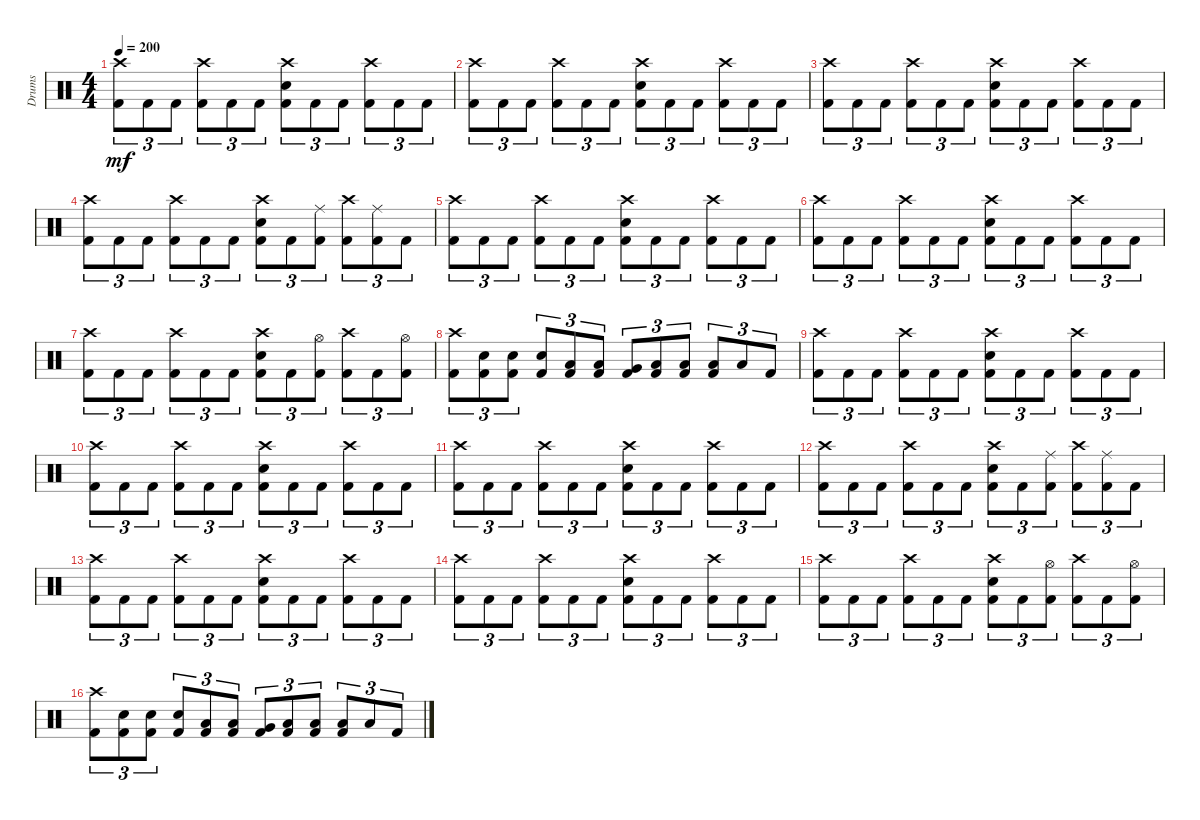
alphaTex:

\track ("Drums" "Drums") {instrument percussion}
\staff {score}
\articulation defaults
\ts (4 4)
\tempo 200
\clef neutral
\ks c
("Crash high (hit)" "Kick (hit) 2").8{tu (3 2) dy mf} "Kick (hit) 2".8{tu (3 2)} "Kick (hit) 2".8{tu (3 2)} ("Crash high (hit)" "Kick (hit) 2").8{tu (3 2)} "Kick (hit) 2".8{tu (3 2)} "Kick (hit) 2".8{tu (3 2)} ("Crash high (hit)" "Electric Snare (hit)" "Kick (hit) 2").8{tu (3 2)} "Kick (hit) 2".8{tu (3 2)} "Kick (hit) 2".8{tu (3 2)} ("Crash high (hit)" "Kick (hit) 2").8{tu (3 2)} "Kick (hit) 2".8{tu (3 2)} "Kick (hit) 2".8{tu (3 2)} |
("Crash high (hit)" "Kick (hit) 2").8{tu (3 2)} "Kick (hit) 2".8{tu (3 2)} "Kick (hit) 2".8{tu (3 2)} ("Crash high (hit)" "Kick (hit) 2").8{tu (3 2)} "Kick (hit) 2".8{tu (3 2)} "Kick (hit) 2".8{tu (3 2)} ("Crash high (hit)" "Electric Snare (hit)" "Kick (hit) 2").8{tu (3 2)} "Kick (hit) 2".8{tu (3 2)} "Kick (hit) 2".8{tu (3 2)} ("Crash high (hit)" "Kick (hit) 2").8{tu (3 2)} "Kick (hit) 2".8{tu (3 2)} "Kick (hit) 2".8{tu (3 2)} |
("Crash high (hit)" "Kick (hit) 2").8{tu (3 2)} "Kick (hit) 2".8{tu (3 2)} "Kick (hit) 2".8{tu (3 2)} ("Crash high (hit)" "Kick (hit) 2").8{tu (3 2)} "Kick (hit) 2".8{tu (3 2)} "Kick (hit) 2".8{tu (3 2)} ("Crash high (hit)" "Electric Snare (hit)" "Kick (hit) 2").8{tu (3 2)} "Kick (hit) 2".8{tu (3 2)} "Kick (hit) 2".8{tu (3 2)} ("Crash high (hit)" "Kick (hit) 2").8{tu (3 2)} "Kick (hit) 2".8{tu (3 2)} "Kick (hit) 2".8{tu (3 2)} |
("Crash high (hit)" "Kick (hit) 2").8{tu (3 2)} "Kick (hit) 2".8{tu (3 2)} "Kick (hit) 2".8{tu (3 2)} ("Crash high (hit)" "Kick (hit) 2").8{tu (3 2)} "Kick (hit) 2".8{tu (3 2)} "Kick (hit) 2".8{tu (3 2)} ("Crash high (hit)" "Electric Snare (hit)" "Kick (hit) 2").8{tu (3 2)} "Kick (hit) 2".8{tu (3 2)} ("Ride (middle)" "Kick (hit) 2").8{tu (3 2)} ("Crash high (hit)" "Kick (hit) 2").8{tu (3 2)} ("Ride (middle)" "Kick (hit) 2").8{tu (3 2)} "Kick (hit) 2".8{tu (3 2)} |
("Crash high (hit)" "Kick (hit) 2").8{tu (3 2)} "Kick (hit) 2".8{tu (3 2)} "Kick (hit) 2".8{tu (3 2)} ("Crash high (hit)" "Kick (hit) 2").8{tu (3 2)} "Kick (hit) 2".8{tu (3 2)} "Kick (hit) 2".8{tu (3 2)} ("Crash high (hit)" "Electric Snare (hit)" "Kick (hit) 2").8{tu (3 2)} "Kick (hit) 2".8{tu (3 2)} "Kick (hit) 2".8{tu (3 2)} ("Crash high (hit)" "Kick (hit) 2").8{tu (3 2)} "Kick (hit) 2".8{tu (3 2)} "Kick (hit) 2".8{tu (3 2)} |
("Crash high (hit)" "Kick (hit) 2").8{tu (3 2)} "Kick (hit) 2".8{tu (3 2)} "Kick (hit) 2".8{tu (3 2)} ("Crash high (hit)" "Kick (hit) 2").8{tu (3 2)} "Kick (hit) 2".8{tu (3 2)} "Kick (hit) 2".8{tu (3 2)} ("Crash high (hit)" "Electric Snare (hit)" "Kick (hit) 2").8{tu (3 2)} "Kick (hit) 2".8{tu (3 2)} "Kick (hit) 2".8{tu (3 2)} ("Crash high (hit)" "Kick (hit) 2").8{tu (3 2)} "Kick (hit) 2".8{tu (3 2)} "Kick (hit) 2".8{tu (3 2)} |
("Crash high (hit)" "Kick (hit) 2").8{tu (3 2)} "Kick (hit) 2".8{tu (3 2)} "Kick (hit) 2".8{tu (3 2)} ("Crash high (hit)" "Kick (hit) 2").8{tu (3 2)} "Kick (hit) 2".8{tu (3 2)} "Kick (hit) 2".8{tu (3 2)} ("Crash high (hit)" "Electric Snare (hit)" "Kick (hit) 2").8{tu (3 2)} "Kick (hit) 2".8{tu (3 2)} ("Hi-Hat (open)" "Kick (hit) 2").8{tu (3 2)} ("Crash high (hit)" "Kick (hit) 2").8{tu (3 2)} "Kick (hit) 2".8{tu (3 2)} ("Hi-Hat (open)" "Kick (hit) 2").8{tu (3 2)} |
("Crash high (hit)" "Kick (hit) 2").8{tu (3 2)} ("Electric Snare (hit)" "Kick (hit) 2").8{tu (3 2)} ("Electric Snare (hit)" "Kick (hit) 2").8{tu (3 2)} ("Electric Snare (hit)" "Kick (hit) 2").8{tu (3 2)} ("Low Tom (hit)" "Kick (hit) 2").8{tu (3 2)} ("Low Tom (hit)" "Kick (hit) 2").8{tu (3 2)} ("Very Low Tom (hit)" "Kick (hit) 2").8{tu (3 2)} ("Low Floor Tom (hit)" "Kick (hit) 2").8{tu (3 2)} ("Low Floor Tom (hit)" "Kick (hit) 2").8{tu (3 2)} ("Low Floor Tom (hit)" "Kick (hit) 2").8{tu (3 2)} "Low Floor Tom (hit)".8{tu (3 2)} "Kick (hit) 2".8{tu (3 2)} |
("Crash high (hit)" "Kick (hit) 2").8{tu (3 2)} "Kick (hit) 2".8{tu (3 2)} "Kick (hit) 2".8{tu (3 2)} ("Crash high (hit)" "Kick (hit) 2").8{tu (3 2)} "Kick (hit) 2".8{tu (3 2)} "Kick (hit) 2".8{tu (3 2)} ("Crash high (hit)" "Electric Snare (hit)" "Kick (hit) 2").8{tu (3 2)} "Kick (hit) 2".8{tu (3 2)} "Kick (hit) 2".8{tu (3 2)} ("Crash high (hit)" "Kick (hit) 2").8{tu (3 2)} "Kick (hit) 2".8{tu (3 2)} "Kick (hit) 2".8{tu (3 2)} |
("Crash high (hit)" "Kick (hit) 2").8{tu (3 2)} "Kick (hit) 2".8{tu (3 2)} "Kick (hit) 2".8{tu (3 2)} ("Crash high (hit)" "Kick (hit) 2").8{tu (3 2)} "Kick (hit) 2".8{tu (3 2)} "Kick (hit) 2".8{tu (3 2)} ("Crash high (hit)" "Electric Snare (hit)" "Kick (hit) 2").8{tu (3 2)} "Kick (hit) 2".8{tu (3 2)} "Kick (hit) 2".8{tu (3 2)} ("Crash high (hit)" "Kick (hit) 2").8{tu (3 2)} "Kick (hit) 2".8{tu (3 2)} "Kick (hit) 2".8{tu (3 2)} |
("Crash high (hit)" "Kick (hit) 2").8{tu (3 2)} "Kick (hit) 2".8{tu (3 2)} "Kick (hit) 2".8{tu (3 2)} ("Crash high (hit)" "Kick (hit) 2").8{tu (3 2)} "Kick (hit) 2".8{tu (3 2)} "Kick (hit) 2".8{tu (3 2)} ("Crash high (hit)" "Electric Snare (hit)" "Kick (hit) 2").8{tu (3 2)} "Kick (hit) 2".8{tu (3 2)} "Kick (hit) 2".8{tu (3 2)} ("Crash high (hit)" "Kick (hit) 2").8{tu (3 2)} "Kick (hit) 2".8{tu (3 2)} "Kick (hit) 2".8{tu (3 2)} |
("Crash high (hit)" "Kick (hit) 2").8{tu (3 2)} "Kick (hit) 2".8{tu (3 2)} "Kick (hit) 2".8{tu (3 2)} ("Crash high (hit)" "Kick (hit) 2").8{tu (3 2)} "Kick (hit) 2".8{tu (3 2)} "Kick (hit) 2".8{tu (3 2)} ("Crash high (hit)" "Electric Snare (hit)" "Kick (hit) 2").8{tu (3 2)} "Kick (hit) 2".8{tu (3 2)} ("Ride (middle)" "Kick (hit) 2").8{tu (3 2)} ("Crash high (hit)" "Kick (hit) 2").8{tu (3 2)} ("Ride (middle)" "Kick (hit) 2").8{tu (3 2)} "Kick (hit) 2".8{tu (3 2)} |
("Crash high (hit)" "Kick (hit) 2").8{tu (3 2)} "Kick (hit) 2".8{tu (3 2)} "Kick (hit) 2".8{tu (3 2)} ("Crash high (hit)" "Kick (hit) 2").8{tu (3 2)} "Kick (hit) 2".8{tu (3 2)} "Kick (hit) 2".8{tu (3 2)} ("Crash high (hit)" "Electric Snare (hit)" "Kick (hit) 2").8{tu (3 2)} "Kick (hit) 2".8{tu (3 2)} "Kick (hit) 2".8{tu (3 2)} ("Crash high (hit)" "Kick (hit) 2").8{tu (3 2)} "Kick (hit) 2".8{tu (3 2)} "Kick (hit) 2".8{tu (3 2)} |
("Crash high (hit)" "Kick (hit) 2").8{tu (3 2)} "Kick (hit) 2".8{tu (3 2)} "Kick (hit) 2".8{tu (3 2)} ("Crash high (hit)" "Kick (hit) 2").8{tu (3 2)} "Kick (hit) 2".8{tu (3 2)} "Kick (hit) 2".8{tu (3 2)} ("Crash high (hit)" "Electric Snare (hit)" "Kick (hit) 2").8{tu (3 2)} "Kick (hit) 2".8{tu (3 2)} "Kick (hit) 2".8{tu (3 2)} ("Crash high (hit)" "Kick (hit) 2").8{tu (3 2)} "Kick (hit) 2".8{tu (3 2)} "Kick (hit) 2".8{tu (3 2)} |
("Crash high (hit)" "Kick (hit) 2").8{tu (3 2)} "Kick (hit) 2".8{tu (3 2)} "Kick (hit) 2".8{tu (3 2)} ("Crash high (hit)" "Kick (hit) 2").8{tu (3 2)} "Kick (hit) 2".8{tu (3 2)} "Kick (hit) 2".8{tu (3 2)} ("Crash high (hit)" "Electric Snare (hit)" "Kick (hit) 2").8{tu (3 2)} "Kick (hit) 2".8{tu (3 2)} ("Hi-Hat (open)" "Kick (hit) 2").8{tu (3 2)} ("Crash high (hit)" "Kick (hit) 2").8{tu (3 2)} "Kick (hit) 2".8{tu (3 2)} ("Hi-Hat (open)" "Kick (hit) 2").8{tu (3 2)} |
("Crash high (hit)" "Kick (hit) 2").8{tu (3 2)} ("Electric Snare (hit)" "Kick (hit) 2").8{tu (3 2)} ("Electric Snare (hit)" "Kick (hit) 2").8{tu (3 2)} ("Electric Snare (hit)" "Kick (hit) 2").8{tu (3 2)} ("Low Tom (hit)" "Kick (hit) 2").8{tu (3 2)} ("Low Tom (hit)" "Kick (hit) 2").8{tu (3 2)} ("Very Low Tom (hit)" "Kick (hit) 2").8{tu (3 2)} ("Low Floor Tom (hit)" "Kick (hit) 2").8{tu (3 2)} ("Low Floor Tom (hit)" "Kick (hit) 2").8{tu (3 2)} ("Low Floor Tom (hit)" "Kick (hit) 2").8{tu (3 2)} "Low Floor Tom (hit)".8{tu (3 2)} "Kick (hit) 2".8{tu (3 2)}
